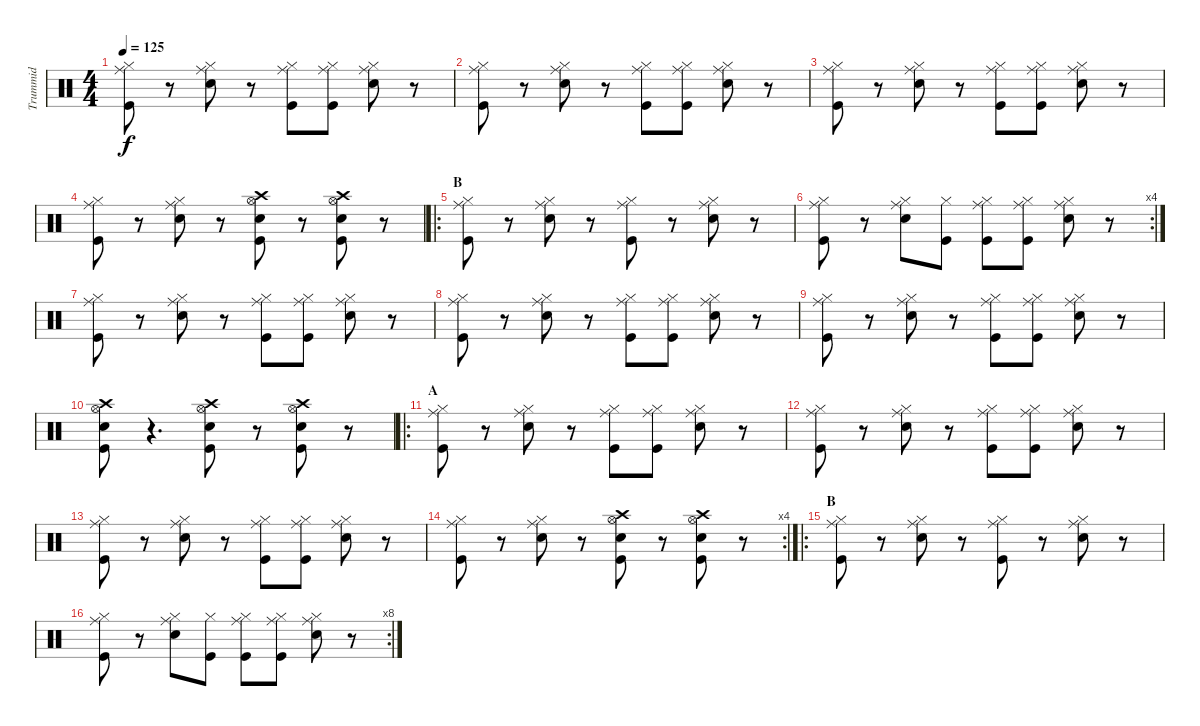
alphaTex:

\track ("Trummid" "Trummid") {instrument percussion}
\staff {score}
\articulation defaults
\ts (4 4)
\tempo 125
\clef neutral
\ks c
("Hi-Hat (closed)" "Ride (middle)" "Kick (hit)").8{dy f} r.8 ("Hi-Hat (closed)" "Ride (middle)" "Snare (hit) 2").8 r.8 ("Hi-Hat (closed)" "Ride (middle)" "Kick (hit)").8 ("Hi-Hat (closed)" "Ride (middle)" "Kick (hit)").8 ("Hi-Hat (closed)" "Ride (middle)" "Snare (hit) 2").8 r.8 |
("Hi-Hat (closed)" "Ride (middle)" "Kick (hit)").8 r.8 ("Hi-Hat (closed)" "Ride (middle)" "Snare (hit) 2").8 r.8 ("Hi-Hat (closed)" "Ride (middle)" "Kick (hit)").8 ("Hi-Hat (closed)" "Ride (middle)" "Kick (hit)").8 ("Hi-Hat (closed)" "Ride (middle)" "Snare (hit) 2").8 r.8 |
("Hi-Hat (closed)" "Ride (middle)" "Kick (hit)").8 r.8 ("Hi-Hat (closed)" "Ride (middle)" "Snare (hit) 2").8 r.8 ("Hi-Hat (closed)" "Ride (middle)" "Kick (hit)").8 ("Hi-Hat (closed)" "Ride (middle)" "Kick (hit)").8 ("Hi-Hat (closed)" "Ride (middle)" "Snare (hit) 2").8 r.8 |
("Hi-Hat (closed)" "Ride (middle)" "Kick (hit)").8 r.8 ("Hi-Hat (closed)" "Ride (middle)" "Snare (hit) 2").8 r.8 ("Crash high (hit)" "Hi-Hat (open)" "Snare (hit) 2" "Kick (hit)").8 r.8 ("Crash high (hit)" "Hi-Hat (open)" "Snare (hit) 2" "Kick (hit)").8 r.8 |
\ro
\section ("" "B")
("Hi-Hat (closed)" "Ride (middle)" "Kick (hit)").8 r.8 ("Hi-Hat (closed)" "Ride (middle)" "Snare (hit) 2").8 r.8 ("Hi-Hat (closed)" "Ride (middle)" "Kick (hit)").8 r.8 ("Hi-Hat (closed)" "Ride (middle)" "Snare (hit) 2").8 r.8 |
\rc 4
("Hi-Hat (closed)" "Ride (middle)" "Kick (hit)").8 r.8 ("Hi-Hat (closed)" "Ride (middle)" "Snare (hit) 2").8 ("Hi-Hat (closed)" "Kick (hit)").8 ("Hi-Hat (closed)" "Ride (middle)" "Kick (hit)").8 ("Hi-Hat (closed)" "Ride (middle)" "Kick (hit)").8 ("Hi-Hat (closed)" "Ride (middle)" "Snare (hit) 2").8 r.8 |
("Hi-Hat (closed)" "Ride (middle)" "Kick (hit)").8 r.8 ("Hi-Hat (closed)" "Ride (middle)" "Snare (hit) 2").8 r.8 ("Hi-Hat (closed)" "Ride (middle)" "Kick (hit)").8 ("Hi-Hat (closed)" "Ride (middle)" "Kick (hit)").8 ("Hi-Hat (closed)" "Ride (middle)" "Snare (hit) 2").8 r.8 |
("Hi-Hat (closed)" "Ride (middle)" "Kick (hit)").8 r.8 ("Hi-Hat (closed)" "Ride (middle)" "Snare (hit) 2").8 r.8 ("Hi-Hat (closed)" "Ride (middle)" "Kick (hit)").8 ("Hi-Hat (closed)" "Ride (middle)" "Kick (hit)").8 ("Hi-Hat (closed)" "Ride (middle)" "Snare (hit) 2").8 r.8 |
("Hi-Hat (closed)" "Ride (middle)" "Kick (hit)").8 r.8 ("Hi-Hat (closed)" "Ride (middle)" "Snare (hit) 2").8 r.8 ("Hi-Hat (closed)" "Ride (middle)" "Kick (hit)").8 ("Hi-Hat (closed)" "Ride (middle)" "Kick (hit)").8 ("Hi-Hat (closed)" "Ride (middle)" "Snare (hit) 2").8 r.8 |
("Crash high (hit)" "Hi-Hat (open)" "Snare (hit) 2" "Kick (hit)").8 r.4{d} ("Crash high (hit)" "Hi-Hat (open)" "Snare (hit) 2" "Kick (hit)").8 r.8 ("Crash high (hit)" "Hi-Hat (open)" "Snare (hit) 2" "Kick (hit)").8 r.8 |
\ro
\section ("" "A")
("Hi-Hat (closed)" "Ride (middle)" "Kick (hit)").8 r.8 ("Hi-Hat (closed)" "Ride (middle)" "Snare (hit) 2").8 r.8 ("Hi-Hat (closed)" "Ride (middle)" "Kick (hit)").8 ("Hi-Hat (closed)" "Ride (middle)" "Kick (hit)").8 ("Hi-Hat (closed)" "Ride (middle)" "Snare (hit) 2").8 r.8 |
("Hi-Hat (closed)" "Ride (middle)" "Kick (hit)").8 r.8 ("Hi-Hat (closed)" "Ride (middle)" "Snare (hit) 2").8 r.8 ("Hi-Hat (closed)" "Ride (middle)" "Kick (hit)").8 ("Hi-Hat (closed)" "Ride (middle)" "Kick (hit)").8 ("Hi-Hat (closed)" "Ride (middle)" "Snare (hit) 2").8 r.8 |
("Hi-Hat (closed)" "Ride (middle)" "Kick (hit)").8 r.8 ("Hi-Hat (closed)" "Ride (middle)" "Snare (hit) 2").8 r.8 ("Hi-Hat (closed)" "Ride (middle)" "Kick (hit)").8 ("Hi-Hat (closed)" "Ride (middle)" "Kick (hit)").8 ("Hi-Hat (closed)" "Ride (middle)" "Snare (hit) 2").8 r.8 |
\rc 4
("Hi-Hat (closed)" "Ride (middle)" "Kick (hit)").8 r.8 ("Hi-Hat (closed)" "Ride (middle)" "Snare (hit) 2").8 r.8 ("Crash high (hit)" "Hi-Hat (open)" "Snare (hit) 2" "Kick (hit)").8 r.8 ("Crash high (hit)" "Hi-Hat (open)" "Snare (hit) 2" "Kick (hit)").8 r.8 |
\ro
\section ("" "B")
("Hi-Hat (closed)" "Ride (middle)" "Kick (hit)").8 r.8 ("Hi-Hat (closed)" "Ride (middle)" "Snare (hit) 2").8 r.8 ("Hi-Hat (closed)" "Ride (middle)" "Kick (hit)").8 r.8 ("Hi-Hat (closed)" "Ride (middle)" "Snare (hit) 2").8 r.8 |
\rc 8
("Hi-Hat (closed)" "Ride (middle)" "Kick (hit)").8 r.8 ("Hi-Hat (closed)" "Ride (middle)" "Snare (hit) 2").8 ("Hi-Hat (closed)" "Kick (hit)").8 ("Hi-Hat (closed)" "Ride (middle)" "Kick (hit)").8 ("Hi-Hat (closed)" "Ride (middle)" "Kick (hit)").8 ("Hi-Hat (closed)" "Ride (middle)" "Snare (hit) 2").8 r.8
